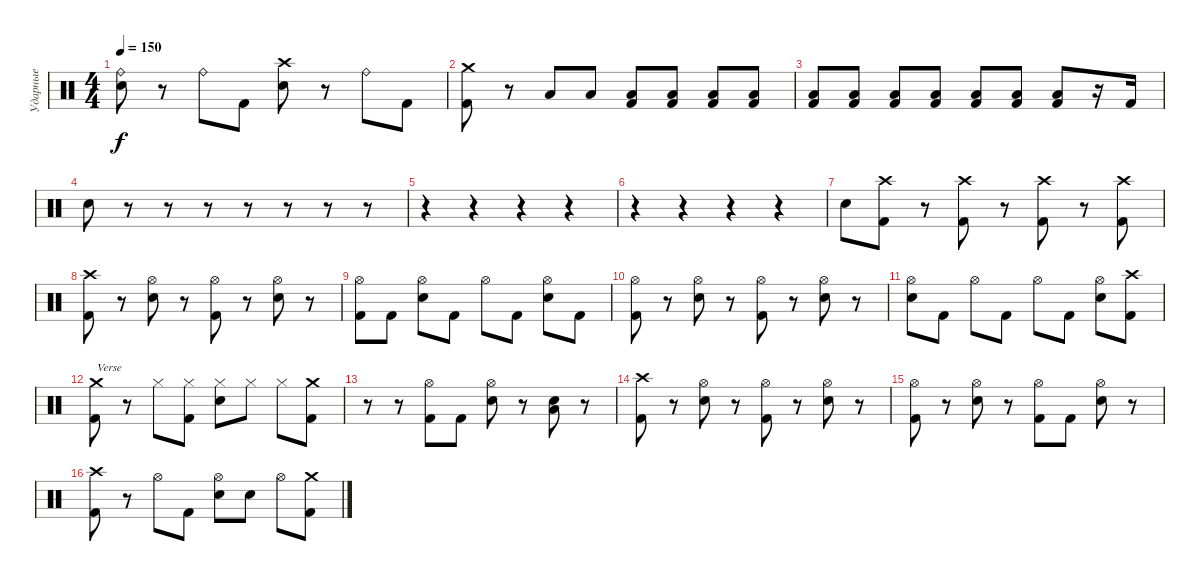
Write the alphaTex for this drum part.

\track ("Ударные" "Ударные") {instrument percussion}
\staff
\articulation defaults
\ts (4 4)
\tempo 150
\clef neutral
\ks c
("Snare (hit) 2" "Ride (bell)").8{dy f} r.8 "Ride (bell)".8 "Kick (hit) 2".8 ("Snare (hit) 2" "Crash high (hit)").8 r.8 "Ride (bell)".8 "Kick (hit) 2".8 |
("Kick (hit) 2" "Crash medium (hit)").8 r.8 "Low Floor Tom (hit)".8 "Low Floor Tom (hit)".8 ("Kick (hit) 2" "Low Floor Tom (hit)").8 ("Kick (hit) 2" "Low Floor Tom (hit)").8 ("Kick (hit) 2" "Low Floor Tom (hit)").8 ("Kick (hit) 2" "Low Floor Tom (hit)").8 |
("Kick (hit) 2" "Low Floor Tom (hit)").8 ("Kick (hit) 2" "Low Floor Tom (hit)").8 ("Kick (hit) 2" "Low Floor Tom (hit)").8 ("Kick (hit) 2" "Low Floor Tom (hit)").8 ("Kick (hit) 2" "Low Floor Tom (hit)").8 ("Kick (hit) 2" "Low Floor Tom (hit)").8 ("Kick (hit) 2" "Low Floor Tom (hit)").8 r.16 "Kick (hit) 2".16 |
"Snare (hit) 2".8 r.8 r.8 r.8 r.8 r.8 r.8 r.8 |
r.4 r.4 r.4 r.4 |
r.4 r.4 r.4 r.4 |
"Snare (hit) 2".8 ("Kick (hit) 2" "Crash high (hit)").8 r.8 ("Kick (hit) 2" "Crash high (hit)").8 r.8 ("Kick (hit) 2" "Crash high (hit)").8 r.8 ("Kick (hit) 2" "Crash high (hit)").8 |
("Kick (hit) 2" "Crash high (hit)").8 r.8 ("Snare (hit) 2" "Hi-Hat (open)").8 r.8 ("Kick (hit) 2" "Hi-Hat (open)").8 r.8 ("Snare (hit) 2" "Hi-Hat (open)").8 r.8 |
("Kick (hit) 2" "Hi-Hat (open)").8 "Kick (hit) 2".8 ("Snare (hit) 2" "Hi-Hat (open)").8 "Kick (hit) 2".8 "Hi-Hat (open)".8 "Kick (hit) 2".8 ("Snare (hit) 2" "Hi-Hat (open)").8 "Kick (hit) 2".8 |
("Kick (hit) 2" "Hi-Hat (open)").8 r.8 ("Snare (hit) 2" "Hi-Hat (open)").8 r.8 ("Kick (hit) 2" "Hi-Hat (open)").8 r.8 ("Snare (hit) 2" "Hi-Hat (open)").8 r.8 |
("Snare (hit) 2" "Hi-Hat (open)").8 "Kick (hit) 2".8 "Hi-Hat (open)".8 "Kick (hit) 2".8 "Hi-Hat (open)".8 "Kick (hit) 2".8 ("Snare (hit) 2" "Hi-Hat (open)").8 ("Kick (hit) 2" "Crash high (hit)").8 |
("Kick (hit) 2" "Crash medium (hit)").8{txt "Verse"} r.8 "Hi-Hat (closed)".8 ("Kick (hit) 2" "Hi-Hat (closed)").8 ("Snare (hit) 2" "Hi-Hat (closed)").8 "Hi-Hat (closed)".8 "Hi-Hat (closed)".8 ("Kick (hit) 2" "Crash medium (hit)").8 |
r.8 r.8 ("Kick (hit) 2" "Hi-Hat (open)").8 "Kick (hit) 2".8 ("Snare (hit) 2" "Hi-Hat (open)").8 r.8 ("Snare (hit) 2" "Low Tom (hit)").8 r.8 |
("Kick (hit) 2" "Crash high (hit)").8 r.8 ("Snare (hit) 2" "Hi-Hat (open)").8 r.8 ("Kick (hit) 2" "Hi-Hat (open)").8 r.8 ("Snare (hit) 2" "Hi-Hat (open)").8 r.8 |
("Kick (hit) 2" "Hi-Hat (open)").8 r.8 ("Snare (hit) 2" "Hi-Hat (open)").8 r.8 ("Kick (hit) 2" "Hi-Hat (open)").8 "Kick (hit) 2".8 ("Snare (hit) 2" "Hi-Hat (open)").8 r.8 |
("Kick (hit) 2" "Crash high (hit)").8 r.8 "Hi-Hat (open)".8 "Kick (hit) 2".8 ("Snare (hit) 2" "Hi-Hat (open)").8 "Snare (hit) 2".8 "Hi-Hat (open)".8 ("Kick (hit) 2" "Crash medium (hit)").8
